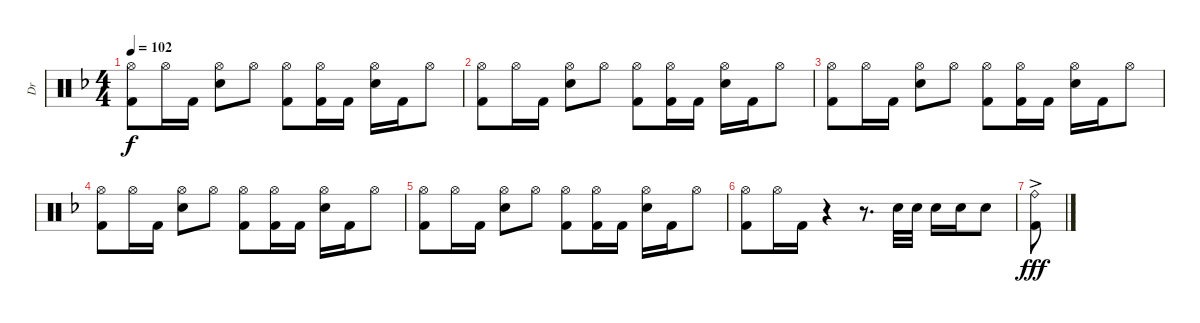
\track ("Dr" "Dr") {instrument percussion}
\staff {score}
\articulation defaults
\ts (4 4)
\tempo 102
\clef neutral
\ks f
("Hi-Hat (open)" "Kick (hit) 2").8{dy f} "Hi-Hat (open)".16 "Kick (hit) 2".16 ("Hi-Hat (open)" "Electric Snare (hit)").8 "Hi-Hat (open)".8 ("Hi-Hat (open)" "Kick (hit) 2").8 ("Hi-Hat (open)" "Kick (hit) 2").16 "Kick (hit) 2".16 ("Hi-Hat (open)" "Electric Snare (hit)").16 "Kick (hit) 2".16 "Hi-Hat (open)".8 |
("Hi-Hat (open)" "Kick (hit) 2").8 "Hi-Hat (open)".16 "Kick (hit) 2".16 ("Hi-Hat (open)" "Electric Snare (hit)").8 "Hi-Hat (open)".8 ("Hi-Hat (open)" "Kick (hit) 2").8 ("Hi-Hat (open)" "Kick (hit) 2").16 "Kick (hit) 2".16 ("Hi-Hat (open)" "Electric Snare (hit)").16 "Kick (hit) 2".16 "Hi-Hat (open)".8 |
("Hi-Hat (open)" "Kick (hit) 2").8 "Hi-Hat (open)".16 "Kick (hit) 2".16 ("Hi-Hat (open)" "Electric Snare (hit)").8 "Hi-Hat (open)".8 ("Hi-Hat (open)" "Kick (hit) 2").8 ("Hi-Hat (open)" "Kick (hit) 2").16 "Kick (hit) 2".16 ("Hi-Hat (open)" "Electric Snare (hit)").16 "Kick (hit) 2".16 "Hi-Hat (open)".8 |
("Hi-Hat (open)" "Kick (hit) 2").8 "Hi-Hat (open)".16 "Kick (hit) 2".16 ("Hi-Hat (open)" "Electric Snare (hit)").8 "Hi-Hat (open)".8 ("Hi-Hat (open)" "Kick (hit) 2").8 ("Hi-Hat (open)" "Kick (hit) 2").16 "Kick (hit) 2".16 ("Hi-Hat (open)" "Electric Snare (hit)").16 "Kick (hit) 2".16 "Hi-Hat (open)".8 |
("Hi-Hat (open)" "Kick (hit) 2").8 "Hi-Hat (open)".16 "Kick (hit) 2".16 ("Hi-Hat (open)" "Electric Snare (hit)").8 "Hi-Hat (open)".8 ("Hi-Hat (open)" "Kick (hit) 2").8 ("Hi-Hat (open)" "Kick (hit) 2").16 "Kick (hit) 2".16 ("Hi-Hat (open)" "Electric Snare (hit)").16 "Kick (hit) 2".16 "Hi-Hat (open)".8 |
("Hi-Hat (open)" "Kick (hit) 2").8 "Hi-Hat (open)".16 "Kick (hit) 2".16 r.4 r.8{d} "Electric Snare (hit)".32 "Electric Snare (hit)".32 "Electric Snare (hit)".16 "Electric Snare (hit)".16 "Electric Snare (hit)".8 |
("Ride (bell)"{ac} "Kick (hit) 2"{ac}).8{dy fff}
